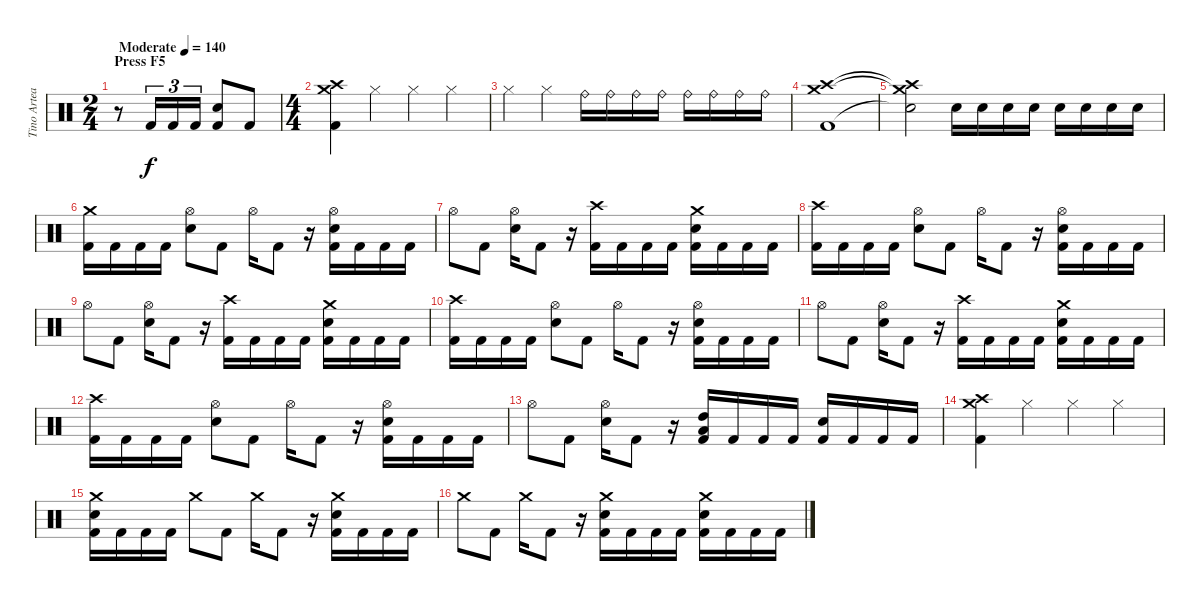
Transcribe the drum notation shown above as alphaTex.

\track ("Tino Arteaga" "Tino Artea") {instrument percussion}
\staff {score}
\articulation defaults
\ts (2 4)
\section ("" "Press F5")
\tempo (140 "Moderate")
\clef neutral
\ks c
r.8{dy f} "Kick (hit) 2".16{tu (3 2)} "Kick (hit) 2".16{tu (3 2)} "Kick (hit) 2".16{tu (3 2)} ("Electric Snare (hit)" "Kick (hit) 2").8 "Kick (hit) 2".8 |
\ts (4 4)
("Crash medium (hit)" "Crash high (hit)" "Kick (hit) 2").4 "Hi-Hat (closed)".4 "Hi-Hat (closed)".4 "Hi-Hat (closed)".4 |
"Hi-Hat (closed)".4 "Hi-Hat (closed)".4 "Ride (bell)".16 "Ride (bell)".16 "Ride (bell)".16 "Ride (bell)".16 "Ride (bell)".16 "Ride (bell)".16 "Ride (bell)".16 "Ride (bell)".16 |
("Crash medium (hit)" "Crash high (hit)" "Kick (hit) 2").1 |
("Crash medium (hit)"{t} "Crash high (hit)"{t} "Snare (hit)"{t}).2 "Electric Snare (hit)".16 "Electric Snare (hit)".16 "Electric Snare (hit)".16 "Electric Snare (hit)".16 "Electric Snare (hit)".16 "Electric Snare (hit)".16 "Electric Snare (hit)".16 "Electric Snare (hit)".16 |
("Crash medium (hit)" "Kick (hit) 2").16 "Kick (hit) 2".16 "Kick (hit) 2".16 "Kick (hit) 2".16 ("Hi-Hat (open)" "Electric Snare (hit)").8 "Kick (hit) 2".8 "Hi-Hat (open)".16 "Kick (hit) 2".8 r.16 ("Hi-Hat (open)" "Electric Snare (hit)" "Kick (hit) 2").16 "Kick (hit) 2".16 "Kick (hit) 2".16 "Kick (hit) 2".16 |
"Hi-Hat (open)".8 "Kick (hit) 2".8 ("Hi-Hat (open)" "Electric Snare (hit)").16 "Kick (hit) 2".8 r.16 ("Crash high (hit)" "Kick (hit) 2").16 "Kick (hit) 2".16 "Kick (hit) 2".16 "Kick (hit) 2".16 ("Crash medium (hit)" "Electric Snare (hit)" "Kick (hit) 2").16 "Kick (hit) 2".16 "Kick (hit) 2".16 "Kick (hit) 2".16 |
("Crash high (hit)" "Kick (hit) 2").16 "Kick (hit) 2".16 "Kick (hit) 2".16 "Kick (hit) 2".16 ("Hi-Hat (open)" "Electric Snare (hit)").8 "Kick (hit) 2".8 "Hi-Hat (open)".16 "Kick (hit) 2".8 r.16 ("Hi-Hat (open)" "Electric Snare (hit)" "Kick (hit) 2").16 "Kick (hit) 2".16 "Kick (hit) 2".16 "Kick (hit) 2".16 |
"Hi-Hat (open)".8 "Kick (hit) 2".8 ("Hi-Hat (open)" "Electric Snare (hit)").16 "Kick (hit) 2".8 r.16 ("Crash high (hit)" "Kick (hit) 2").16 "Kick (hit) 2".16 "Kick (hit) 2".16 "Kick (hit) 2".16 ("Crash medium (hit)" "Electric Snare (hit)" "Kick (hit) 2").16 "Kick (hit) 2".16 "Kick (hit) 2".16 "Kick (hit) 2".16 |
("Crash high (hit)" "Kick (hit) 2").16 "Kick (hit) 2".16 "Kick (hit) 2".16 "Kick (hit) 2".16 ("Hi-Hat (open)" "Electric Snare (hit)").8 "Kick (hit) 2".8 "Hi-Hat (open)".16 "Kick (hit) 2".8 r.16 ("Hi-Hat (open)" "Electric Snare (hit)" "Kick (hit) 2").16 "Kick (hit) 2".16 "Kick (hit) 2".16 "Kick (hit) 2".16 |
"Hi-Hat (open)".8 "Kick (hit) 2".8 ("Hi-Hat (open)" "Electric Snare (hit)").16 "Kick (hit) 2".8 r.16 ("Crash high (hit)" "Kick (hit) 2").16 "Kick (hit) 2".16 "Kick (hit) 2".16 "Kick (hit) 2".16 ("Crash medium (hit)" "Electric Snare (hit)" "Kick (hit) 2").16 "Kick (hit) 2".16 "Kick (hit) 2".16 "Kick (hit) 2".16 |
("Crash high (hit)" "Kick (hit) 2").16 "Kick (hit) 2".16 "Kick (hit) 2".16 "Kick (hit) 2".16 ("Hi-Hat (open)" "Electric Snare (hit)").8 "Kick (hit) 2".8 "Hi-Hat (open)".16 "Kick (hit) 2".8 r.16 ("Hi-Hat (open)" "Electric Snare (hit)" "Kick (hit) 2").16 "Kick (hit) 2".16 "Kick (hit) 2".16 "Kick (hit) 2".16 |
"Hi-Hat (open)".8 "Kick (hit) 2".8 ("Hi-Hat (open)" "Electric Snare (hit)").16 "Kick (hit) 2".8 r.16 ("Low Tom (hit)" "High Tom (hit)" "Kick (hit) 2").16 "Kick (hit) 2".16 "Kick (hit) 2".16 "Kick (hit) 2".16 ("Electric Snare (hit)" "Kick (hit) 2").16 "Kick (hit) 2".16 "Kick (hit) 2".16 "Kick (hit) 2".16 |
("Crash high (hit)" "Crash medium (hit)" "Kick (hit) 2").4 "Hi-Hat (closed)".4 "Hi-Hat (closed)".4 "Hi-Hat (closed)".4 |
("Crash medium (hit)" "Electric Snare (hit)" "Kick (hit) 2").16 "Kick (hit) 2".16 "Kick (hit) 2".16 "Kick (hit) 2".16 "Crash medium (hit)".8 "Kick (hit) 2".8 "Crash medium (hit)".16 "Kick (hit) 2".8 r.16 ("Crash medium (hit)" "Electric Snare (hit)" "Kick (hit) 2").16 "Kick (hit) 2".16 "Kick (hit) 2".16 "Kick (hit) 2".16 |
"Crash medium (hit)".8 "Kick (hit) 2".8 "Crash medium (hit)".16 "Kick (hit) 2".8 r.16 ("Crash medium (hit)" "Electric Snare (hit)" "Kick (hit) 2").16 "Kick (hit) 2".16 "Kick (hit) 2".16 "Kick (hit) 2".16 ("Crash medium (hit)" "Electric Snare (hit)" "Kick (hit) 2").16 "Kick (hit) 2".16 "Kick (hit) 2".16 "Kick (hit) 2".16
